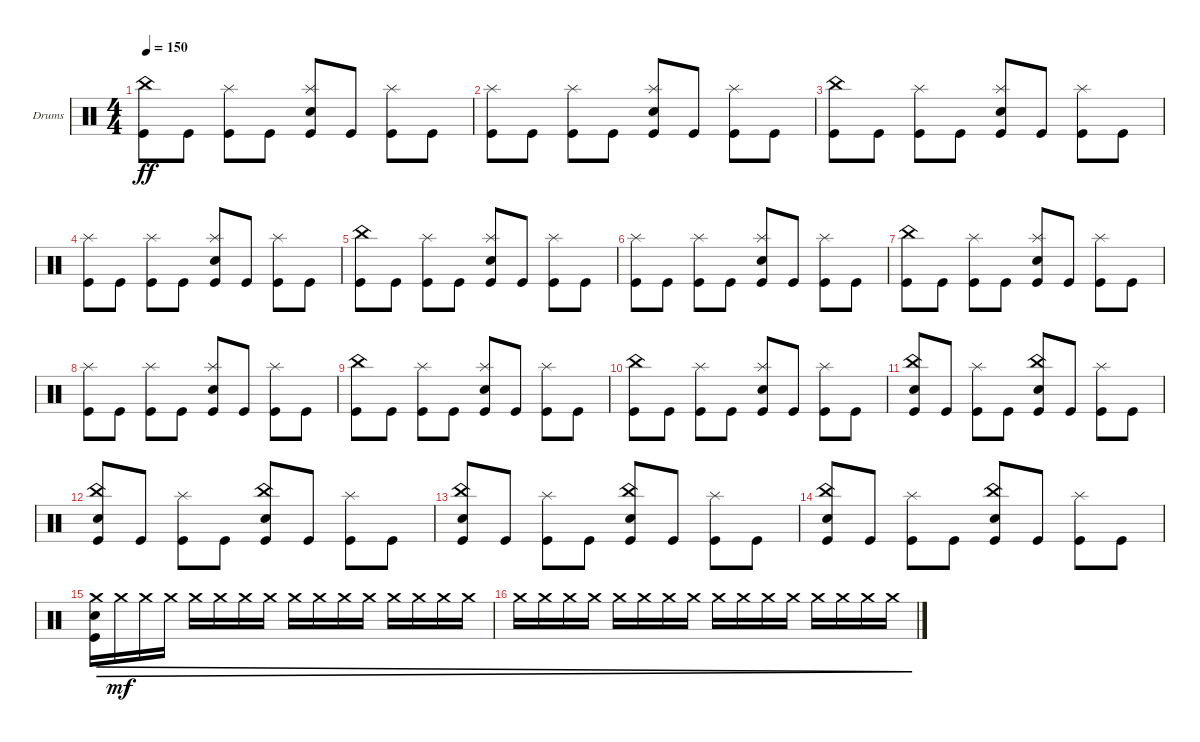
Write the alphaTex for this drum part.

\bracketExtendMode groupsimilarinstruments
\firstSystemTrackNameOrientation horizontal
\otherSystemsTrackNameOrientation horizontal
\track ("Corey" "Drums") {instrument percussion}
\staff {score}
\articulation defaults
\ts (4 4)
\tempo 150
\clef neutral
\ks c
("Kick (hit)" "China (hit)").8{dy ff} "Kick (hit)".8 ("Kick (hit)" "Splash (hit)").8 "Kick (hit)".8 ("Kick (hit)" "Snare (hit) 2" "Splash (hit)").8 "Kick (hit)".8 ("Kick (hit)" "Splash (hit)").8 "Kick (hit)".8 |
("Kick (hit)" "Splash (hit)").8 "Kick (hit)".8 ("Kick (hit)" "Splash (hit)").8 "Kick (hit)".8 ("Kick (hit)" "Snare (hit) 2" "Splash (hit)").8 "Kick (hit)".8 ("Kick (hit)" "Splash (hit)").8 "Kick (hit)".8 |
("Kick (hit)" "China (hit)").8 "Kick (hit)".8 ("Kick (hit)" "Splash (hit)").8 "Kick (hit)".8 ("Kick (hit)" "Snare (hit) 2" "Splash (hit)").8 "Kick (hit)".8 ("Kick (hit)" "Splash (hit)").8 "Kick (hit)".8 |
("Kick (hit)" "Splash (hit)").8 "Kick (hit)".8 ("Kick (hit)" "Splash (hit)").8 "Kick (hit)".8 ("Kick (hit)" "Snare (hit) 2" "Splash (hit)").8 "Kick (hit)".8 ("Kick (hit)" "Splash (hit)").8 "Kick (hit)".8 |
("Kick (hit)" "China (hit)").8 "Kick (hit)".8 ("Kick (hit)" "Splash (hit)").8 "Kick (hit)".8 ("Kick (hit)" "Snare (hit) 2" "Splash (hit)").8 "Kick (hit)".8 ("Kick (hit)" "Splash (hit)").8 "Kick (hit)".8 |
("Kick (hit)" "Splash (hit)").8 "Kick (hit)".8 ("Kick (hit)" "Splash (hit)").8 "Kick (hit)".8 ("Kick (hit)" "Snare (hit) 2" "Splash (hit)").8 "Kick (hit)".8 ("Kick (hit)" "Splash (hit)").8 "Kick (hit)".8 |
("Kick (hit)" "China (hit)").8 "Kick (hit)".8 ("Kick (hit)" "Splash (hit)").8 "Kick (hit)".8 ("Kick (hit)" "Snare (hit) 2" "Splash (hit)").8 "Kick (hit)".8 ("Kick (hit)" "Splash (hit)").8 "Kick (hit)".8 |
("Kick (hit)" "Splash (hit)").8 "Kick (hit)".8 ("Kick (hit)" "Splash (hit)").8 "Kick (hit)".8 ("Kick (hit)" "Snare (hit) 2" "Splash (hit)").8 "Kick (hit)".8 ("Kick (hit)" "Splash (hit)").8 "Kick (hit)".8 |
("Kick (hit)" "China (hit)").8 "Kick (hit)".8 ("Kick (hit)" "Splash (hit)").8 "Kick (hit)".8 ("Kick (hit)" "Snare (hit) 2" "Splash (hit)").8 "Kick (hit)".8 ("Kick (hit)" "Splash (hit)").8 "Kick (hit)".8 |
("Kick (hit)" "China (hit)").8 "Kick (hit)".8 ("Kick (hit)" "Splash (hit)").8 "Kick (hit)".8 ("Kick (hit)" "Snare (hit) 2" "Splash (hit)").8 "Kick (hit)".8 ("Kick (hit)" "Splash (hit)").8 "Kick (hit)".8 |
("Kick (hit)" "Snare (hit) 2" "China (hit)").8 "Kick (hit)".8 ("Kick (hit)" "Splash (hit)").8 "Kick (hit)".8 ("Kick (hit)" "Snare (hit) 2" "China (hit)").8 "Kick (hit)".8 ("Kick (hit)" "Splash (hit)").8 "Kick (hit)".8 |
("Kick (hit)" "Snare (hit) 2" "China (hit)").8 "Kick (hit)".8 ("Kick (hit)" "Splash (hit)").8 "Kick (hit)".8 ("Kick (hit)" "Snare (hit) 2" "China (hit)").8 "Kick (hit)".8 ("Kick (hit)" "Splash (hit)").8 "Kick (hit)".8 |
("Kick (hit)" "Snare (hit) 2" "China (hit)").8 "Kick (hit)".8 ("Kick (hit)" "Splash (hit)").8 "Kick (hit)".8 ("Kick (hit)" "Snare (hit) 2" "China (hit)").8 "Kick (hit)".8 ("Kick (hit)" "Splash (hit)").8 "Kick (hit)".8 |
("Kick (hit)" "Snare (hit) 2" "China (hit)").8 "Kick (hit)".8 ("Kick (hit)" "Splash (hit)").8 "Kick (hit)".8 ("Kick (hit)" "Snare (hit) 2" "China (hit)").8 "Kick (hit)".8 ("Kick (hit)" "Splash (hit)").8 "Kick (hit)".8 |
("Crash medium (hit)" "Kick (hit)" "Snare (hit) 2").16{dec} "Crash medium (hit)".16{dec dy mf} "Crash medium (hit)".16{dec} "Crash medium (hit)".16{dec} "Crash medium (hit)".16{dec} "Crash medium (hit)".16{dec} "Crash medium (hit)".16{dec} "Crash medium (hit)".16{dec} "Crash medium (hit)".16{dec} "Crash medium (hit)".16{dec} "Crash medium (hit)".16{dec} "Crash medium (hit)".16{dec} "Crash medium (hit)".16{dec} "Crash medium (hit)".16{dec} "Crash medium (hit)".16{dec} "Crash medium (hit)".16{dec} |
"Crash medium (hit)".16{dec} "Crash medium (hit)".16{dec} "Crash medium (hit)".16{dec} "Crash medium (hit)".16{dec} "Crash medium (hit)".16{dec} "Crash medium (hit)".16{dec} "Crash medium (hit)".16{dec} "Crash medium (hit)".16{dec} "Crash medium (hit)".16{dec} "Crash medium (hit)".16{dec} "Crash medium (hit)".16{dec} "Crash medium (hit)".16{dec} "Crash medium (hit)".16{dec} "Crash medium (hit)".16{dec} "Crash medium (hit)".16{dec} "Crash medium (hit)".16{dec}
